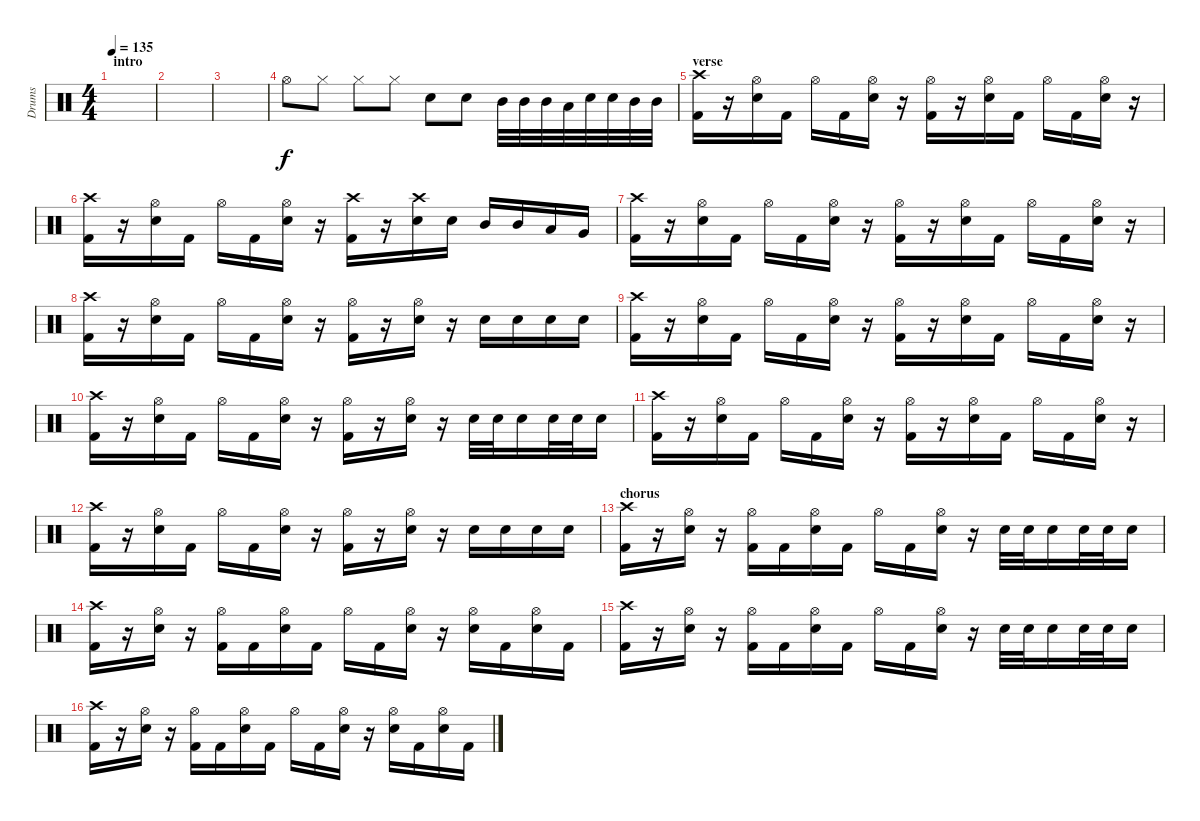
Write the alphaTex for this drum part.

\track ("Drums" "Drums") {instrument percussion}
\staff {score}
\articulation defaults
\ts (4 4)
\section ("" "intro")
\tempo 135
\clef neutral
\ks c
|
|
|
"Hi-Hat (open)".8 "Hi-Hat (closed)".8 "Hi-Hat (closed)".8 "Hi-Hat (closed)".8 "Electric Snare (hit)".8 "Electric Snare (hit)".8 "Mid Tom (hit)".32 "Mid Tom (hit)".32 "Mid Tom (hit)".32 "Low Tom (hit)".32 "Electric Snare (hit)".32 "Electric Snare (hit)".32 "Mid Tom (hit)".32 "Mid Tom (hit)".32 |
\section ("" "verse")
("Crash high (hit)" "Kick (hit) 2").16 r.16 ("Hi-Hat (open)" "Electric Snare (hit)").16 "Kick (hit) 2".16 "Hi-Hat (open)".16 "Kick (hit) 2".16 ("Hi-Hat (open)" "Electric Snare (hit)").16 r.16 ("Hi-Hat (open)" "Kick (hit) 2").16 r.16 ("Hi-Hat (open)" "Electric Snare (hit)").16 "Kick (hit) 2".16 "Hi-Hat (open)".16 "Kick (hit) 2".16 ("Hi-Hat (open)" "Electric Snare (hit)").16 r.16 |
("Crash high (hit)" "Kick (hit) 2").16 r.16 ("Hi-Hat (open)" "Electric Snare (hit)").16 "Kick (hit) 2".16 "Hi-Hat (open)".16 "Kick (hit) 2".16 ("Hi-Hat (open)" "Electric Snare (hit)").16 r.16 ("Crash high (hit)" "Kick (hit) 2").16 r.16 ("Crash high (hit)" "Electric Snare (hit)").16 "Electric Snare (hit)".16 "Mid Tom (hit)".16 "Mid Tom (hit)".16 "Low Tom (hit)".16 "Very Low Tom (hit)".16 |
("Crash high (hit)" "Kick (hit) 2").16 r.16 ("Hi-Hat (open)" "Electric Snare (hit)").16 "Kick (hit) 2".16 "Hi-Hat (open)".16 "Kick (hit) 2".16 ("Hi-Hat (open)" "Electric Snare (hit)").16 r.16 ("Hi-Hat (open)" "Kick (hit) 2").16 r.16 ("Hi-Hat (open)" "Electric Snare (hit)").16 "Kick (hit) 2".16 "Hi-Hat (open)".16 "Kick (hit) 2".16 ("Hi-Hat (open)" "Electric Snare (hit)").16 r.16 |
("Crash high (hit)" "Kick (hit) 2").16 r.16 ("Hi-Hat (open)" "Electric Snare (hit)").16 "Kick (hit) 2".16 "Hi-Hat (open)".16 "Kick (hit) 2".16 ("Hi-Hat (open)" "Electric Snare (hit)").16 r.16 ("Hi-Hat (open)" "Kick (hit) 2").16 r.16 ("Hi-Hat (open)" "Electric Snare (hit)").16 r.16 "Electric Snare (hit)".16 "Electric Snare (hit)".16 "Electric Snare (hit)".16 "Electric Snare (hit)".16 |
("Crash high (hit)" "Kick (hit) 2").16 r.16 ("Hi-Hat (open)" "Electric Snare (hit)").16 "Kick (hit) 2".16 "Hi-Hat (open)".16 "Kick (hit) 2".16 ("Hi-Hat (open)" "Electric Snare (hit)").16 r.16 ("Hi-Hat (open)" "Kick (hit) 2").16 r.16 ("Hi-Hat (open)" "Electric Snare (hit)").16 "Kick (hit) 2".16 "Hi-Hat (open)".16 "Kick (hit) 2".16 ("Hi-Hat (open)" "Electric Snare (hit)").16 r.16 |
("Crash high (hit)" "Kick (hit) 2").16 r.16 ("Hi-Hat (open)" "Electric Snare (hit)").16 "Kick (hit) 2".16 "Hi-Hat (open)".16 "Kick (hit) 2".16 ("Hi-Hat (open)" "Electric Snare (hit)").16 r.16 ("Hi-Hat (open)" "Kick (hit) 2").16 r.16 ("Hi-Hat (open)" "Electric Snare (hit)").16 r.16 "Electric Snare (hit)".32 "Electric Snare (hit)".32 "Electric Snare (hit)".16 "Electric Snare (hit)".32 "Electric Snare (hit)".32 "Electric Snare (hit)".16 |
("Crash high (hit)" "Kick (hit) 2").16 r.16 ("Hi-Hat (open)" "Electric Snare (hit)").16 "Kick (hit) 2".16 "Hi-Hat (open)".16 "Kick (hit) 2".16 ("Hi-Hat (open)" "Electric Snare (hit)").16 r.16 ("Hi-Hat (open)" "Kick (hit) 2").16 r.16 ("Hi-Hat (open)" "Electric Snare (hit)").16 "Kick (hit) 2".16 "Hi-Hat (open)".16 "Kick (hit) 2".16 ("Hi-Hat (open)" "Electric Snare (hit)").16 r.16 |
("Crash high (hit)" "Kick (hit) 2").16 r.16 ("Hi-Hat (open)" "Electric Snare (hit)").16 "Kick (hit) 2".16 "Hi-Hat (open)".16 "Kick (hit) 2".16 ("Hi-Hat (open)" "Electric Snare (hit)").16 r.16 ("Hi-Hat (open)" "Kick (hit) 2").16 r.16 ("Hi-Hat (open)" "Electric Snare (hit)").16 r.16 "Electric Snare (hit)".16 "Electric Snare (hit)".16 "Electric Snare (hit)".16 "Electric Snare (hit)".16 |
\section ("" "chorus")
("Crash high (hit)" "Kick (hit) 2").16 r.16 ("Hi-Hat (open)" "Electric Snare (hit)").16 r.16 ("Hi-Hat (open)" "Kick (hit) 2").16 "Kick (hit) 2".16 ("Hi-Hat (open)" "Electric Snare (hit)").16 "Kick (hit) 2".16 "Hi-Hat (open)".16 "Kick (hit) 2".16 ("Hi-Hat (open)" "Electric Snare (hit)").16 r.16 "Electric Snare (hit)".32 "Electric Snare (hit)".32 "Electric Snare (hit)".16 "Electric Snare (hit)".32 "Electric Snare (hit)".32 "Electric Snare (hit)".16 |
("Crash high (hit)" "Kick (hit) 2").16 r.16 ("Hi-Hat (open)" "Electric Snare (hit)").16 r.16 ("Hi-Hat (open)" "Kick (hit) 2").16 "Kick (hit) 2".16 ("Hi-Hat (open)" "Electric Snare (hit)").16 "Kick (hit) 2".16 "Hi-Hat (open)".16 "Kick (hit) 2".16 ("Hi-Hat (open)" "Electric Snare (hit)").16 r.16 ("Hi-Hat (open)" "Electric Snare (hit)").16 "Kick (hit) 2".16 ("Hi-Hat (open)" "Electric Snare (hit)").16 "Kick (hit) 2".16 |
("Crash high (hit)" "Kick (hit) 2").16 r.16 ("Hi-Hat (open)" "Electric Snare (hit)").16 r.16 ("Hi-Hat (open)" "Kick (hit) 2").16 "Kick (hit) 2".16 ("Hi-Hat (open)" "Electric Snare (hit)").16 "Kick (hit) 2".16 "Hi-Hat (open)".16 "Kick (hit) 2".16 ("Hi-Hat (open)" "Electric Snare (hit)").16 r.16 "Electric Snare (hit)".32 "Electric Snare (hit)".32 "Electric Snare (hit)".16 "Electric Snare (hit)".32 "Electric Snare (hit)".32 "Electric Snare (hit)".16 |
("Crash high (hit)" "Kick (hit) 2").16 r.16 ("Hi-Hat (open)" "Electric Snare (hit)").16 r.16 ("Hi-Hat (open)" "Kick (hit) 2").16 "Kick (hit) 2".16 ("Hi-Hat (open)" "Electric Snare (hit)").16 "Kick (hit) 2".16 "Hi-Hat (open)".16 "Kick (hit) 2".16 ("Hi-Hat (open)" "Electric Snare (hit)").16 r.16 ("Hi-Hat (open)" "Electric Snare (hit)").16 "Kick (hit) 2".16 ("Hi-Hat (open)" "Electric Snare (hit)").16 "Kick (hit) 2".16
